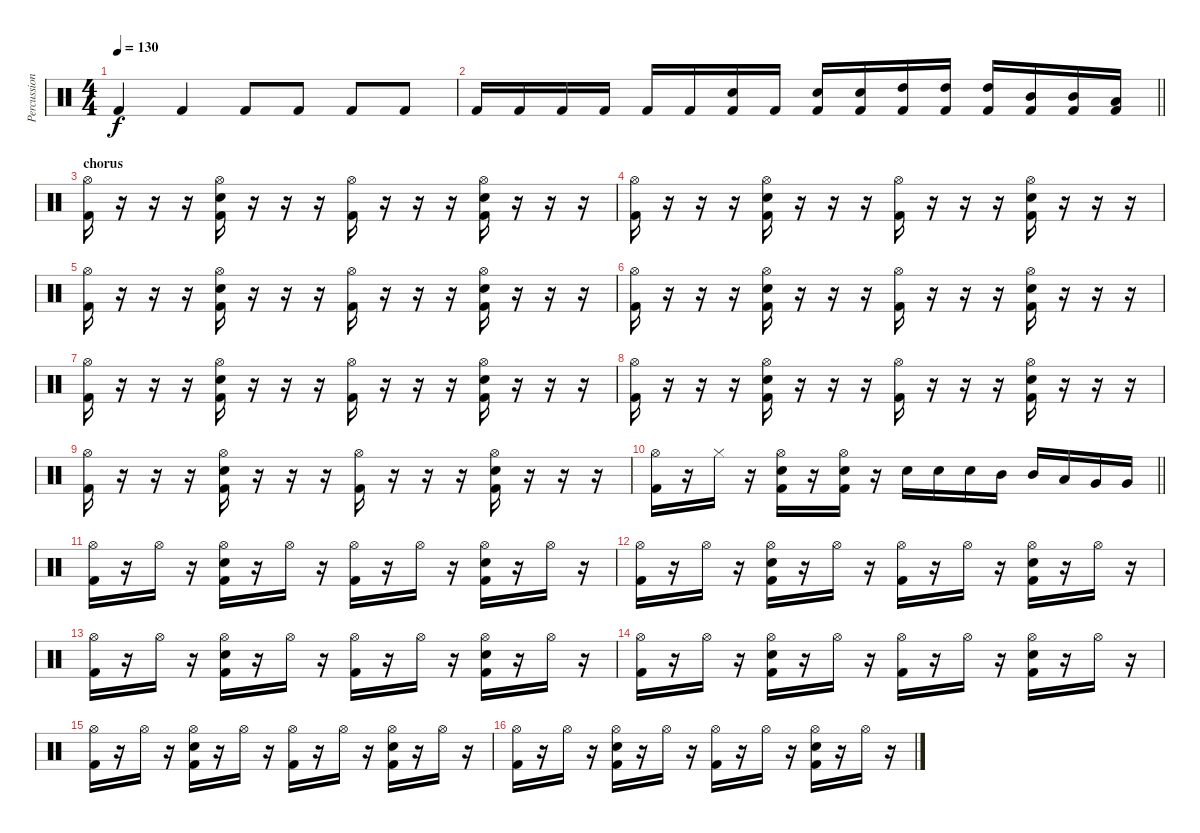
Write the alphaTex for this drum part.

\track ("Percussion" "Percussion") {instrument percussion}
\staff {score}
\articulation defaults
\ts (4 4)
\tempo 130
\clef neutral
\ks c "Kick (hit) 2".4{dy f} "Kick (hit) 2".4 "Kick (hit) 2".8 "Kick (hit) 2".8 "Kick (hit) 2".8 "Kick (hit) 2".8
|
\barLineRight lightlight "Kick (hit) 2".16 "Kick (hit) 2".16 "Kick (hit) 2".16 "Kick (hit) 2".16 "Kick (hit) 2".16 "Kick (hit) 2".16
("Electric Snare (hit)" "Kick (hit) 2").16 "Kick (hit) 2".16 ("Electric Snare (hit)" "Kick (hit) 2").16 ("Electric Snare (hit)" "Kick (hit) 2").16 ("High Tom (hit)" "Kick (hit) 2").16 ("High Tom (hit)" "Kick (hit) 2").16 ("High Tom (hit)" "Kick (hit) 2").16 ("Mid Tom (hit)" "Kick (hit) 2").16 ("Mid Tom (hit)" "Kick (hit) 2").16 ("Low Tom (hit)" "Kick (hit) 2").16 |
\section ("" "chorus")
("Hi-Hat (open)" "Kick (hit) 2").16 r.16 r.16 r.16 ("Hi-Hat (open)" "Electric Snare (hit)" "Kick (hit) 2").16 r.16 r.16 r.16 ("Hi-Hat (open)" "Kick (hit) 2").16 r.16 r.16 r.16 ("Hi-Hat (open)" "Electric Snare (hit)" "Kick (hit) 2").16 r.16 r.16 r.16 |
("Hi-Hat (open)" "Kick (hit) 2").16 r.16 r.16 r.16 ("Hi-Hat (open)" "Electric Snare (hit)" "Kick (hit) 2").16 r.16 r.16 r.16 ("Hi-Hat (open)" "Kick (hit) 2").16 r.16 r.16 r.16 ("Hi-Hat (open)" "Electric Snare (hit)" "Kick (hit) 2").16 r.16 r.16 r.16 |
("Hi-Hat (open)" "Kick (hit) 2").16 r.16 r.16 r.16 ("Hi-Hat (open)" "Electric Snare (hit)" "Kick (hit) 2").16 r.16 r.16 r.16 ("Hi-Hat (open)" "Kick (hit) 2").16 r.16 r.16 r.16 ("Hi-Hat (open)" "Electric Snare (hit)" "Kick (hit) 2").16 r.16 r.16 r.16 |
("Hi-Hat (open)" "Kick (hit) 2").16 r.16 r.16 r.16 ("Hi-Hat (open)" "Electric Snare (hit)" "Kick (hit) 2").16 r.16 r.16 r.16 ("Hi-Hat (open)" "Kick (hit) 2").16 r.16 r.16 r.16 ("Hi-Hat (open)" "Electric Snare (hit)" "Kick (hit) 2").16 r.16 r.16 r.16 |
("Hi-Hat (open)" "Kick (hit) 2").16 r.16 r.16 r.16 ("Hi-Hat (open)" "Electric Snare (hit)" "Kick (hit) 2").16 r.16 r.16 r.16 ("Hi-Hat (open)" "Kick (hit) 2").16 r.16 r.16 r.16 ("Hi-Hat (open)" "Electric Snare (hit)" "Kick (hit) 2").16 r.16 r.16 r.16 |
("Hi-Hat (open)" "Kick (hit) 2").16 r.16 r.16 r.16 ("Hi-Hat (open)" "Electric Snare (hit)" "Kick (hit) 2").16 r.16 r.16 r.16 ("Hi-Hat (open)" "Kick (hit) 2").16 r.16 r.16 r.16 ("Hi-Hat (open)" "Electric Snare (hit)" "Kick (hit) 2").16 r.16 r.16 r.16 |
("Hi-Hat (open)" "Kick (hit) 2").16 r.16 r.16 r.16 ("Hi-Hat (open)" "Electric Snare (hit)" "Kick (hit) 2").16 r.16 r.16 r.16 ("Hi-Hat (open)" "Kick (hit) 2").16 r.16 r.16 r.16 ("Hi-Hat (open)" "Electric Snare (hit)" "Kick (hit) 2").16 r.16 r.16 r.16 |
\barLineRight lightlight
("Hi-Hat (open)" "Kick (hit) 2").16 r.16 "Hi-Hat (closed)".16 r.16 ("Hi-Hat (open)" "Electric Snare (hit)" "Kick (hit) 2").16 r.16 ("Hi-Hat (open)" "Electric Snare (hit)" "Kick (hit) 2").16 r.16 "Electric Snare (hit)".16 "Electric Snare (hit)".16 "Electric Snare (hit)".16 "Mid Tom (hit)".16 "Mid Tom (hit)".16 "Low Tom (hit)".16 "Very Low Tom (hit)".16 "Very Low Tom (hit)".16 |
("Hi-Hat (open)" "Kick (hit) 2").16 r.16 "Hi-Hat (open)".16 r.16 ("Hi-Hat (open)" "Electric Snare (hit)" "Kick (hit) 2").16 r.16 "Hi-Hat (open)".16 r.16 ("Hi-Hat (open)" "Kick (hit) 2").16 r.16 "Hi-Hat (open)".16 r.16 ("Hi-Hat (open)" "Electric Snare (hit)" "Kick (hit) 2").16 r.16 "Hi-Hat (open)".16 r.16 |
("Hi-Hat (open)" "Kick (hit) 2").16 r.16 "Hi-Hat (open)".16 r.16 ("Hi-Hat (open)" "Electric Snare (hit)" "Kick (hit) 2").16 r.16 "Hi-Hat (open)".16 r.16 ("Hi-Hat (open)" "Kick (hit) 2").16 r.16 "Hi-Hat (open)".16 r.16 ("Hi-Hat (open)" "Electric Snare (hit)" "Kick (hit) 2").16 r.16 "Hi-Hat (open)".16 r.16 |
("Hi-Hat (open)" "Kick (hit) 2").16 r.16 "Hi-Hat (open)".16 r.16 ("Hi-Hat (open)" "Electric Snare (hit)" "Kick (hit) 2").16 r.16 "Hi-Hat (open)".16 r.16 ("Hi-Hat (open)" "Kick (hit) 2").16 r.16 "Hi-Hat (open)".16 r.16 ("Hi-Hat (open)" "Electric Snare (hit)" "Kick (hit) 2").16 r.16 "Hi-Hat (open)".16 r.16 |
("Hi-Hat (open)" "Kick (hit) 2").16 r.16 "Hi-Hat (open)".16 r.16 ("Hi-Hat (open)" "Electric Snare (hit)" "Kick (hit) 2").16 r.16 "Hi-Hat (open)".16 r.16 ("Hi-Hat (open)" "Kick (hit) 2").16 r.16 "Hi-Hat (open)".16 r.16 ("Hi-Hat (open)" "Electric Snare (hit)" "Kick (hit) 2").16 r.16 "Hi-Hat (open)".16 r.16 |
("Hi-Hat (open)" "Kick (hit) 2").16 r.16 "Hi-Hat (open)".16 r.16 ("Hi-Hat (open)" "Electric Snare (hit)" "Kick (hit) 2").16 r.16 "Hi-Hat (open)".16 r.16 ("Hi-Hat (open)" "Kick (hit) 2").16 r.16 "Hi-Hat (open)".16 r.16 ("Hi-Hat (open)" "Electric Snare (hit)" "Kick (hit) 2").16 r.16 "Hi-Hat (open)".16 r.16 |
("Hi-Hat (open)" "Kick (hit) 2").16 r.16 "Hi-Hat (open)".16 r.16 ("Hi-Hat (open)" "Electric Snare (hit)" "Kick (hit) 2").16 r.16 "Hi-Hat (open)".16 r.16 ("Hi-Hat (open)" "Kick (hit) 2").16 r.16 "Hi-Hat (open)".16 r.16 ("Hi-Hat (open)" "Electric Snare (hit)" "Kick (hit) 2").16 r.16 "Hi-Hat (open)".16 r.16
